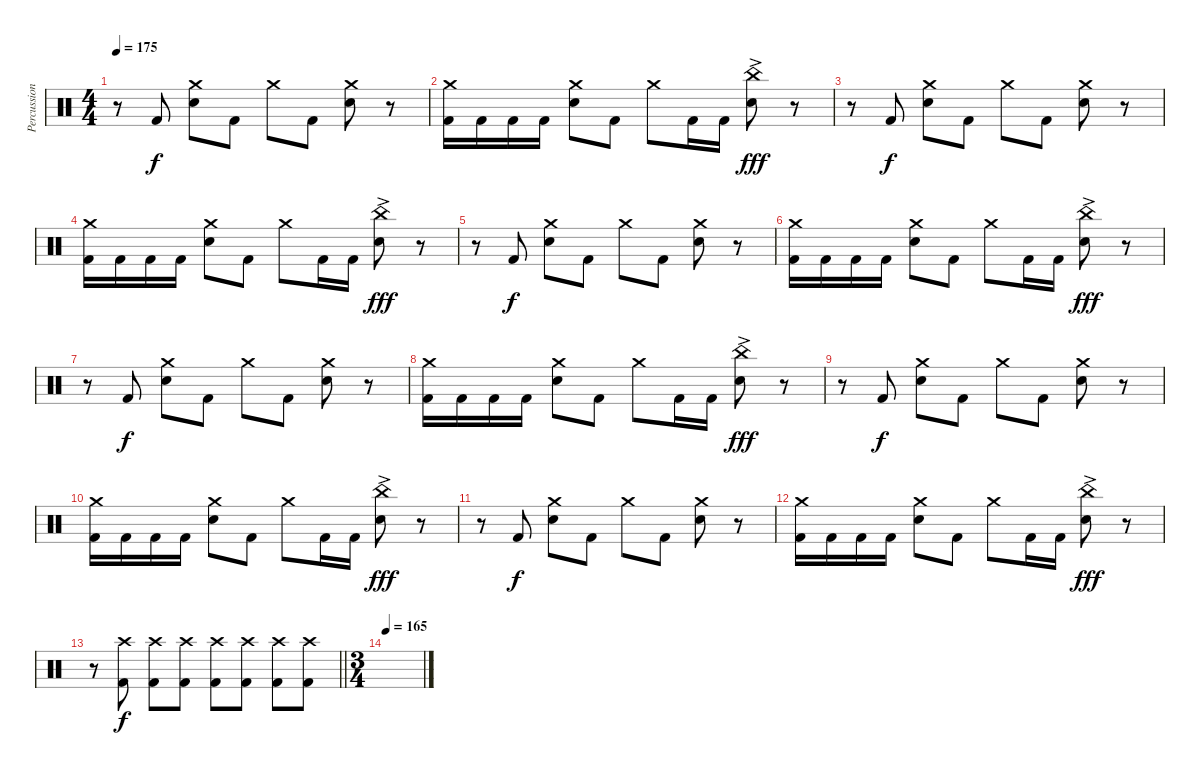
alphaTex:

\track ("Percussion (Moose)" "Percussion") {instrument percussion}
\staff {score}
\articulation defaults
\ts (4 4)
\tempo 175
\clef neutral
\ks c
r.8{dy fff} "Kick (hit) 2".8{dy f} ("Crash medium (hit)" "Electric Snare (hit)").8 "Kick (hit) 2".8 "Crash medium (hit)".8 "Kick (hit) 2".8 ("Crash medium (hit)" "Electric Snare (hit)").8 r.8 |
("Crash medium (hit)" "Kick (hit) 2").16 "Kick (hit) 2".16 "Kick (hit) 2".16 "Kick (hit) 2".16 ("Crash medium (hit)" "Electric Snare (hit)").8 "Kick (hit) 2".8 "Crash medium (hit)".8 "Kick (hit) 2".16 "Kick (hit) 2".16 ("China (hit)"{ac} "Electric Snare (hit)").8{dy fff} r.8 |
r.8 "Kick (hit) 2".8{dy f} ("Crash medium (hit)" "Electric Snare (hit)").8 "Kick (hit) 2".8 "Crash medium (hit)".8 "Kick (hit) 2".8 ("Crash medium (hit)" "Electric Snare (hit)").8 r.8 |
("Crash medium (hit)" "Kick (hit) 2").16 "Kick (hit) 2".16 "Kick (hit) 2".16 "Kick (hit) 2".16 ("Crash medium (hit)" "Electric Snare (hit)").8 "Kick (hit) 2".8 "Crash medium (hit)".8 "Kick (hit) 2".16 "Kick (hit) 2".16 ("China (hit)"{ac} "Electric Snare (hit)").8{dy fff} r.8 |
r.8 "Kick (hit) 2".8{dy f} ("Crash medium (hit)" "Electric Snare (hit)").8 "Kick (hit) 2".8 "Crash medium (hit)".8 "Kick (hit) 2".8 ("Crash medium (hit)" "Electric Snare (hit)").8 r.8 |
("Crash medium (hit)" "Kick (hit) 2").16 "Kick (hit) 2".16 "Kick (hit) 2".16 "Kick (hit) 2".16 ("Crash medium (hit)" "Electric Snare (hit)").8 "Kick (hit) 2".8 "Crash medium (hit)".8 "Kick (hit) 2".16 "Kick (hit) 2".16 ("China (hit)"{ac} "Electric Snare (hit)").8{dy fff} r.8 |
r.8 "Kick (hit) 2".8{dy f} ("Crash medium (hit)" "Electric Snare (hit)").8 "Kick (hit) 2".8 "Crash medium (hit)".8 "Kick (hit) 2".8 ("Crash medium (hit)" "Electric Snare (hit)").8 r.8 |
("Crash medium (hit)" "Kick (hit) 2").16 "Kick (hit) 2".16 "Kick (hit) 2".16 "Kick (hit) 2".16 ("Crash medium (hit)" "Electric Snare (hit)").8 "Kick (hit) 2".8 "Crash medium (hit)".8 "Kick (hit) 2".16 "Kick (hit) 2".16 ("China (hit)"{ac} "Electric Snare (hit)").8{dy fff} r.8 |
r.8 "Kick (hit) 2".8{dy f} ("Crash medium (hit)" "Electric Snare (hit)").8 "Kick (hit) 2".8 "Crash medium (hit)".8 "Kick (hit) 2".8 ("Crash medium (hit)" "Electric Snare (hit)").8 r.8 |
("Crash medium (hit)" "Kick (hit) 2").16 "Kick (hit) 2".16 "Kick (hit) 2".16 "Kick (hit) 2".16 ("Crash medium (hit)" "Electric Snare (hit)").8 "Kick (hit) 2".8 "Crash medium (hit)".8 "Kick (hit) 2".16 "Kick (hit) 2".16 ("China (hit)"{ac} "Electric Snare (hit)").8{dy fff} r.8 |
r.8 "Kick (hit) 2".8{dy f} ("Crash medium (hit)" "Electric Snare (hit)").8 "Kick (hit) 2".8 "Crash medium (hit)".8 "Kick (hit) 2".8 ("Crash medium (hit)" "Electric Snare (hit)").8 r.8 |
("Crash medium (hit)" "Kick (hit) 2").16 "Kick (hit) 2".16 "Kick (hit) 2".16 "Kick (hit) 2".16 ("Crash medium (hit)" "Electric Snare (hit)").8 "Kick (hit) 2".8 "Crash medium (hit)".8 "Kick (hit) 2".16 "Kick (hit) 2".16 ("China (hit)"{ac} "Electric Snare (hit)").8{dy fff} r.8 |
\barLineRight lightlight
r.8 ("Crash high (hit)" "Kick (hit) 2").8{dy f} ("Crash high (hit)" "Kick (hit) 2").8 ("Crash high (hit)" "Kick (hit) 2").8 ("Crash high (hit)" "Kick (hit) 2").8 ("Crash high (hit)" "Kick (hit) 2").8 ("Crash high (hit)" "Kick (hit) 2").8 ("Crash high (hit)" "Kick (hit) 2").8 |
\ts (3 4)
\tempo 165
